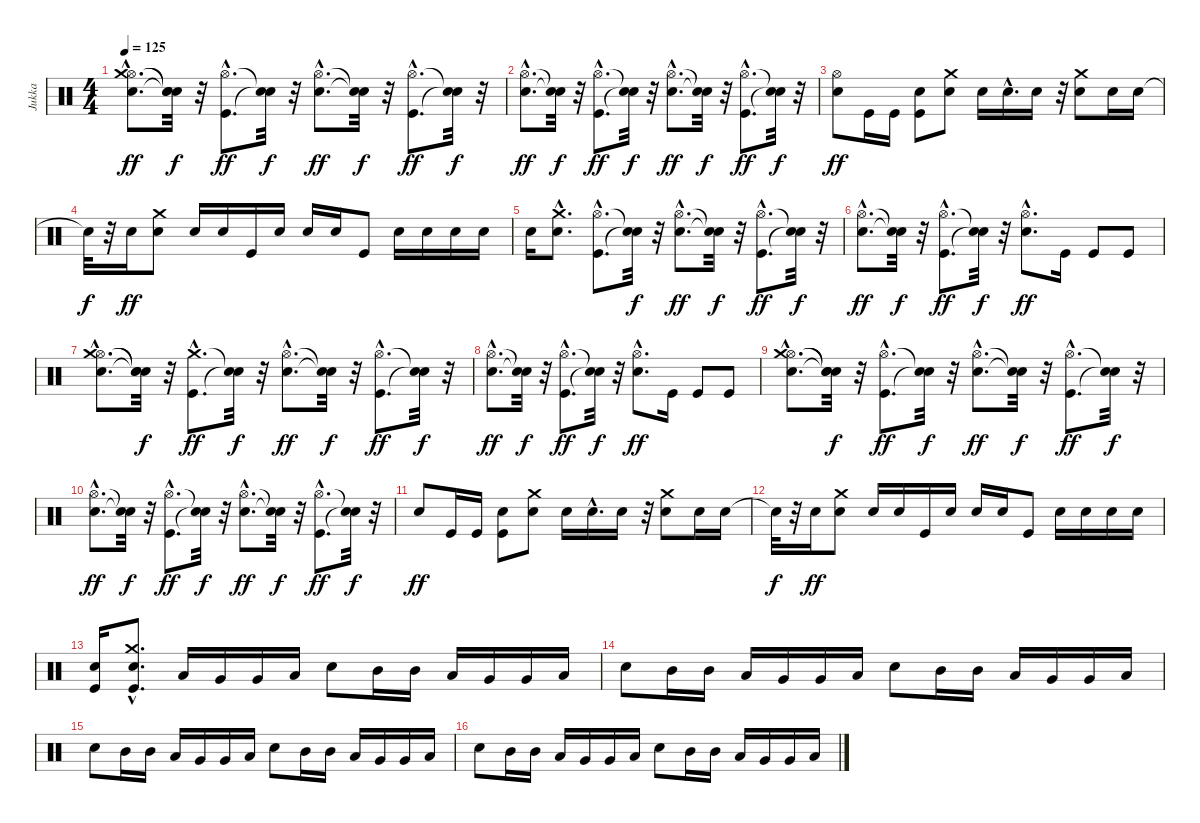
\track ("Jukka" "Jukka") {instrument percussion}
\staff {score}
\articulation defaults
\ts (4 4)
\tempo 125
\clef neutral
\ks c
("Electric Snare (hit)"{hac} "Hi-Hat (open)"{hac} "Crash medium (hit)"{hac}).8{d dy ff} ("Snare (hit)"{t} "Snare (hit)"{t} "Snare (hit)"{t}).32{dy f} r.32 ("Kick (hit)"{hac} "Hi-Hat (open)"{hac}).8{d dy ff} ("Snare (hit)"{t} "Snare (hit)"{t}).32{dy f} r.32 ("Electric Snare (hit)"{hac} "Hi-Hat (open)"{hac}).8{d dy ff} ("Snare (hit)"{t} "Snare (hit)"{t}).32{dy f} r.32 ("Kick (hit)"{hac} "Hi-Hat (open)"{hac}).8{d dy ff} ("Snare (hit)"{t} "Snare (hit)"{t}).32{dy f} r.32 |
("Electric Snare (hit)"{hac} "Hi-Hat (open)"{hac}).8{d dy ff} ("Snare (hit)"{t} "Snare (hit)"{t}).32{dy f} r.32 ("Kick (hit)"{hac} "Hi-Hat (open)"{hac}).8{d dy ff} ("Snare (hit)"{t} "Snare (hit)"{t}).32{dy f} r.32 ("Electric Snare (hit)"{hac} "Hi-Hat (open)"{hac}).8{d dy ff} ("Snare (hit)"{t} "Snare (hit)"{t}).32{dy f} r.32 ("Kick (hit)"{hac} "Hi-Hat (open)"{hac}).8{d dy ff} ("Snare (hit)"{t} "Snare (hit)"{t}).32{dy f} r.32 |
("Electric Snare (hit)" "Hi-Hat (open)").8{dy ff} "Kick (hit)".16 "Kick (hit)".16 ("Kick (hit)" "Electric Snare (hit)").8 ("Electric Snare (hit)" "Crash medium (hit)").8 "Electric Snare (hit)".16 "Electric Snare (hit)"{hac}.16{d} "Electric Snare (hit)".16 r.32 ("Electric Snare (hit)" "Crash medium (hit)").8 "Electric Snare (hit)".16 "Electric Snare (hit)".16 |
"Snare (hit)"{t}.32{dy f} r.32 "Electric Snare (hit)".16{dy ff} ("Electric Snare (hit)" "Crash medium (hit)").8 "Electric Snare (hit)".16 "Electric Snare (hit)".16 "Kick (hit)".16 "Electric Snare (hit)".16 "Electric Snare (hit)".16 "Electric Snare (hit)".16 "Kick (hit)".8 "Electric Snare (hit)".16 "Electric Snare (hit)".16 "Electric Snare (hit)".16 "Electric Snare (hit)".16 |
"Electric Snare (hit)".16 ("Electric Snare (hit)"{hac} "Crash medium (hit)"{hac}).8{d} ("Kick (hit)"{hac} "Hi-Hat (open)"{hac}).8{d} ("Snare (hit)"{t} "Snare (hit)"{t}).32{dy f} r.32 ("Electric Snare (hit)"{hac} "Hi-Hat (open)"{hac}).8{d dy ff} ("Snare (hit)"{t} "Snare (hit)"{t}).32{dy f} r.32 ("Kick (hit)"{hac} "Hi-Hat (open)"{hac}).8{d dy ff} ("Snare (hit)"{t} "Snare (hit)"{t}).32{dy f} r.32 |
("Electric Snare (hit)"{hac} "Hi-Hat (open)"{hac}).8{d dy ff} ("Snare (hit)"{t} "Snare (hit)"{t}).32{dy f} r.32 ("Kick (hit)"{hac} "Hi-Hat (open)"{hac}).8{d dy ff} ("Snare (hit)"{t} "Snare (hit)"{t}).32{dy f} r.32 ("Electric Snare (hit)"{hac} "Hi-Hat (open)"{hac}).8{d dy ff} "Kick (hit)".16 "Kick (hit)".8 "Kick (hit)".8 |
("Electric Snare (hit)"{hac} "Hi-Hat (open)"{hac} "Crash medium (hit)"{hac}).8{d} ("Snare (hit)"{t} "Snare (hit)"{t} "Snare (hit)"{t}).32{dy f} r.32 ("Kick (hit)"{hac} "Crash medium (hit)"{hac}).8{d dy ff} ("Snare (hit)"{t} "Snare (hit)"{t}).32{dy f} r.32 ("Electric Snare (hit)"{hac} "Hi-Hat (open)"{hac}).8{d dy ff} ("Snare (hit)"{t} "Snare (hit)"{t}).32{dy f} r.32 ("Kick (hit)"{hac} "Hi-Hat (open)"{hac}).8{d dy ff} ("Snare (hit)"{t} "Snare (hit)"{t}).32{dy f} r.32 |
("Electric Snare (hit)"{hac} "Hi-Hat (open)"{hac}).8{d dy ff} ("Snare (hit)"{t} "Snare (hit)"{t}).32{dy f} r.32 ("Kick (hit)"{hac} "Hi-Hat (open)"{hac}).8{d dy ff} ("Snare (hit)"{t} "Snare (hit)"{t}).32{dy f} r.32 ("Electric Snare (hit)"{hac} "Hi-Hat (open)"{hac}).8{d dy ff} "Kick (hit)".16 "Kick (hit)".8 "Kick (hit)".8 |
("Electric Snare (hit)"{hac} "Hi-Hat (open)"{hac} "Crash medium (hit)"{hac}).8{d} ("Snare (hit)"{t} "Snare (hit)"{t} "Snare (hit)"{t}).32{dy f} r.32 ("Kick (hit)"{hac} "Hi-Hat (open)"{hac}).8{d dy ff} ("Snare (hit)"{t} "Snare (hit)"{t}).32{dy f} r.32 ("Electric Snare (hit)"{hac} "Hi-Hat (open)"{hac}).8{d dy ff} ("Snare (hit)"{t} "Snare (hit)"{t}).32{dy f} r.32 ("Kick (hit)"{hac} "Hi-Hat (open)"{hac}).8{d dy ff} ("Snare (hit)"{t} "Snare (hit)"{t}).32{dy f} r.32 |
("Electric Snare (hit)"{hac} "Hi-Hat (open)"{hac}).8{d dy ff} ("Snare (hit)"{t} "Snare (hit)"{t}).32{dy f} r.32 ("Kick (hit)"{hac} "Hi-Hat (open)"{hac}).8{d dy ff} ("Snare (hit)"{t} "Snare (hit)"{t}).32{dy f} r.32 ("Electric Snare (hit)"{hac} "Hi-Hat (open)"{hac}).8{d dy ff} ("Snare (hit)"{t} "Snare (hit)"{t}).32{dy f} r.32 ("Kick (hit)"{hac} "Hi-Hat (open)"{hac}).8{d dy ff} ("Snare (hit)"{t} "Snare (hit)"{t}).32{dy f} r.32 |
"Electric Snare (hit)".8{dy ff} "Kick (hit)".16 "Kick (hit)".16 ("Kick (hit)" "Electric Snare (hit)").8 ("Electric Snare (hit)" "Crash medium (hit)").8 "Electric Snare (hit)".16 "Electric Snare (hit)"{hac}.16{d} "Electric Snare (hit)".16 r.32 ("Electric Snare (hit)" "Crash medium (hit)").8 "Electric Snare (hit)".16 "Electric Snare (hit)".16 |
"Snare (hit)"{t}.32{dy f} r.32 "Electric Snare (hit)".16{dy ff} ("Electric Snare (hit)" "Crash medium (hit)").8 "Electric Snare (hit)".16 "Electric Snare (hit)".16 "Kick (hit)".16 "Electric Snare (hit)".16 "Electric Snare (hit)".16 "Electric Snare (hit)".16 "Kick (hit)".8 "Electric Snare (hit)".16 "Electric Snare (hit)".16 "Electric Snare (hit)".16 "Electric Snare (hit)".16 |
("Kick (hit)" "Electric Snare (hit)").16 ("Kick (hit)"{hac} "Electric Snare (hit)"{hac} "Crash medium (hit)"{hac}).8{d} "Low Tom (hit)".16 "Very Low Tom (hit)".16 "Very Low Tom (hit)".16 "Low Floor Tom (hit)".16 "Electric Snare (hit)".8 "Mid Tom (hit)".16 "Mid Tom (hit)".16 "Low Tom (hit)".16 "Very Low Tom (hit)".16 "Very Low Tom (hit)".16 "Low Floor Tom (hit)".16 |
"Electric Snare (hit)".8 "Mid Tom (hit)".16 "Mid Tom (hit)".16 "Low Tom (hit)".16 "Very Low Tom (hit)".16 "Very Low Tom (hit)".16 "Low Floor Tom (hit)".16 "Electric Snare (hit)".8 "Mid Tom (hit)".16 "Mid Tom (hit)".16 "Low Tom (hit)".16 "Very Low Tom (hit)".16 "Very Low Tom (hit)".16 "Low Floor Tom (hit)".16 |
"Electric Snare (hit)".8 "Mid Tom (hit)".16 "Mid Tom (hit)".16 "Low Tom (hit)".16 "Very Low Tom (hit)".16 "Very Low Tom (hit)".16 "Low Floor Tom (hit)".16 "Electric Snare (hit)".8 "Mid Tom (hit)".16 "Mid Tom (hit)".16 "Low Tom (hit)".16 "Very Low Tom (hit)".16 "Very Low Tom (hit)".16 "Low Floor Tom (hit)".16 |
"Electric Snare (hit)".8 "Mid Tom (hit)".16 "Mid Tom (hit)".16 "Low Tom (hit)".16 "Very Low Tom (hit)".16 "Very Low Tom (hit)".16 "Low Floor Tom (hit)".16 "Electric Snare (hit)".8 "Mid Tom (hit)".16 "Mid Tom (hit)".16 "Low Tom (hit)".16 "Very Low Tom (hit)".16 "Very Low Tom (hit)".16 "Low Floor Tom (hit)".16
